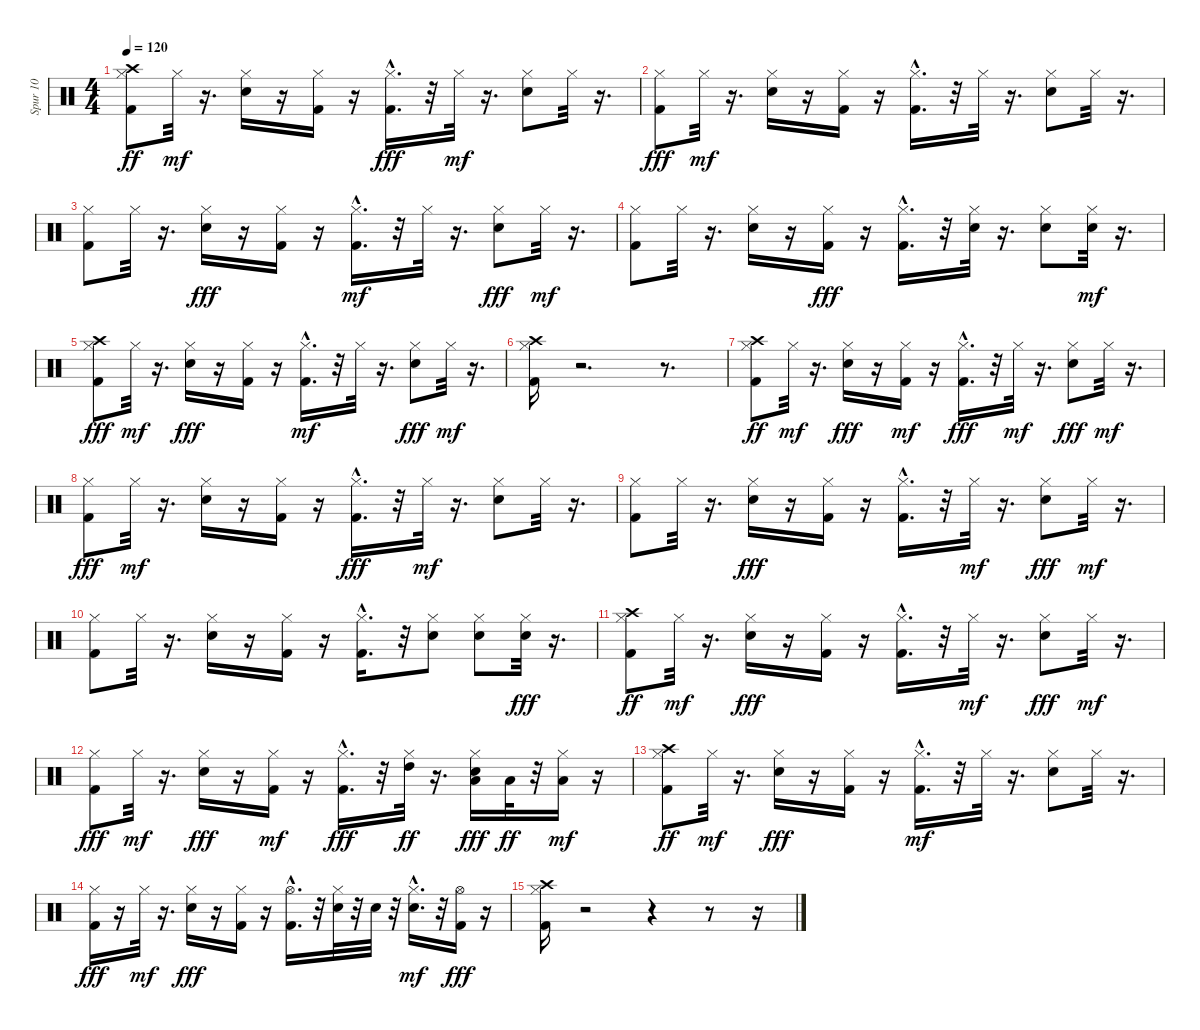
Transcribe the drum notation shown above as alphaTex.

\track ("Spur 10" "Spur 10") {instrument percussion}
\staff {score}
\articulation defaults
\ts (4 4)
\tempo 120
\clef neutral
\ks c
("Hi-Hat (closed)" "Kick (hit) 2" "Crash high (hit)").8{dy ff} "Hi-Hat (closed)".32{dy mf} r.16{d} ("Electric Snare (hit)" "Hi-Hat (closed)").16 r.16 ("Kick (hit) 2" "Hi-Hat (closed)").16 r.16 ("Hi-Hat (closed)" "Kick (hit) 2"{hac}).16{d dy fff} r.32 "Hi-Hat (closed)".32{dy mf} r.16{d} ("Electric Snare (hit)" "Hi-Hat (closed)").8 "Hi-Hat (closed)".32 r.16{d} |
("Hi-Hat (closed)" "Kick (hit) 2").8{dy fff} "Hi-Hat (closed)".32{dy mf} r.16{d} ("Electric Snare (hit)" "Hi-Hat (closed)").16 r.16 ("Kick (hit) 2" "Hi-Hat (closed)").16 r.16 ("Kick (hit) 2"{hac} "Hi-Hat (closed)").16{d} r.32 "Hi-Hat (closed)".32 r.16{d} ("Electric Snare (hit)" "Hi-Hat (closed)").8 "Hi-Hat (closed)".32 r.16{d} |
("Kick (hit) 2" "Hi-Hat (closed)").8 "Hi-Hat (closed)".32 r.16{d} ("Hi-Hat (closed)" "Electric Snare (hit)").16{dy fff} r.16 ("Hi-Hat (closed)" "Kick (hit) 2").16 r.16 ("Kick (hit) 2"{hac} "Hi-Hat (closed)").16{d dy mf} r.32 "Hi-Hat (closed)".32 r.16{d} ("Hi-Hat (closed)" "Electric Snare (hit)").8{dy fff} "Hi-Hat (closed)".32{dy mf} r.16{d} |
("Kick (hit) 2" "Hi-Hat (closed)").8 "Hi-Hat (closed)".32 r.16{d} ("Electric Snare (hit)" "Hi-Hat (closed)").16 r.16 ("Hi-Hat (closed)" "Kick (hit) 2").16{dy fff} r.16 ("Hi-Hat (closed)" "Kick (hit) 2"{hac}).16{d} r.32 ("Hi-Hat (closed)" "Electric Snare (hit)").32 r.16{d} ("Hi-Hat (closed)" "Electric Snare (hit)").8 ("Electric Snare (hit)" "Hi-Hat (closed)").32{dy mf} r.16{d} |
("Crash high (hit)" "Hi-Hat (closed)" "Kick (hit) 2").8{dy fff} "Hi-Hat (closed)".32{dy mf} r.16{d} ("Hi-Hat (closed)" "Electric Snare (hit)").16{dy fff} r.16 ("Hi-Hat (closed)" "Kick (hit) 2").16 r.16 ("Kick (hit) 2"{hac} "Hi-Hat (closed)").16{d dy mf} r.32 "Hi-Hat (closed)".32 r.16{d} ("Hi-Hat (closed)" "Electric Snare (hit)").8{dy fff} "Hi-Hat (closed)".32{dy mf} r.16{d} |
("Kick (hit) 2" "Crash high (hit)" "Hi-Hat (closed)").16 r.2{d} r.8{d} |
("Kick (hit) 2" "Hi-Hat (closed)" "Crash high (hit)").8{dy ff} "Hi-Hat (closed)".32{dy mf} r.16{d} ("Hi-Hat (closed)" "Electric Snare (hit)").16{dy fff} r.16 ("Kick (hit) 2" "Hi-Hat (closed)").16{dy mf} r.16 ("Hi-Hat (closed)" "Kick (hit) 2"{hac}).16{d dy fff} r.32 "Hi-Hat (closed)".32{dy mf} r.16{d} ("Hi-Hat (closed)" "Electric Snare (hit)").8{dy fff} "Hi-Hat (closed)".32{dy mf} r.16{d} |
("Hi-Hat (closed)" "Kick (hit) 2").8{dy fff} "Hi-Hat (closed)".32{dy mf} r.16{d} ("Electric Snare (hit)" "Hi-Hat (closed)").16 r.16 ("Kick (hit) 2" "Hi-Hat (closed)").16 r.16 ("Hi-Hat (closed)" "Kick (hit) 2"{hac}).16{d dy fff} r.32 "Hi-Hat (closed)".32{dy mf} r.16{d} ("Electric Snare (hit)" "Hi-Hat (closed)").8 "Hi-Hat (closed)".32 r.16{d} |
("Kick (hit) 2" "Hi-Hat (closed)").8 "Hi-Hat (closed)".32 r.16{d} ("Hi-Hat (closed)" "Electric Snare (hit)").16{dy fff} r.16 ("Hi-Hat (closed)" "Kick (hit) 2").16 r.16 ("Hi-Hat (closed)" "Kick (hit) 2"{hac}).16{d} r.32 "Hi-Hat (closed)".32{dy mf} r.16{d} ("Hi-Hat (closed)" "Electric Snare (hit)").8{dy fff} "Hi-Hat (closed)".32{dy mf} r.16{d} |
("Kick (hit) 2" "Hi-Hat (closed)").8 "Hi-Hat (closed)".32 r.16{d} ("Electric Snare (hit)" "Hi-Hat (closed)").16 r.16 ("Kick (hit) 2" "Hi-Hat (closed)").16 r.16 ("Kick (hit) 2"{hac} "Hi-Hat (closed)").16{d} r.32 ("Electric Snare (hit)" "Hi-Hat (closed)").8 ("Electric Snare (hit)" "Hi-Hat (closed)").8 ("Hi-Hat (closed)" "Electric Snare (hit)").32{dy fff} r.16{d} |
("Kick (hit) 2" "Hi-Hat (closed)" "Crash high (hit)").8{dy ff} "Hi-Hat (closed)".32{dy mf} r.16{d} ("Hi-Hat (closed)" "Electric Snare (hit)").16{dy fff} r.16 ("Hi-Hat (closed)" "Kick (hit) 2").16 r.16 ("Hi-Hat (closed)" "Kick (hit) 2"{hac}).16{d} r.32 "Hi-Hat (closed)".32{dy mf} r.16{d} ("Hi-Hat (closed)" "Electric Snare (hit)").8{dy fff} "Hi-Hat (closed)".32{dy mf} r.16{d} |
("Hi-Hat (closed)" "Kick (hit) 2").8{dy fff} "Hi-Hat (closed)".32{dy mf} r.16{d} ("Hi-Hat (closed)" "Electric Snare (hit)").16{dy fff} r.16 ("Kick (hit) 2" "Hi-Hat (closed)").16{dy mf} r.16 ("Hi-Hat (closed)" "Kick (hit) 2"{hac}).16{d dy fff} r.32 ("Hi-Hat (closed)" "High Tom (hit)").32{dy ff} r.16{d} ("Low Tom (hit)" "Hi-Hat (closed)" "Electric Snare (hit)").16{dy fff} "Low Tom (hit)".32{dy ff} r.32 ("Low Floor Tom (hit)" "Hi-Hat (closed)").16{dy mf} r.16 |
("Hi-Hat (closed)" "Kick (hit) 2" "Crash high (hit)").8{dy ff} "Hi-Hat (closed)".32{dy mf} r.16{d} ("Hi-Hat (closed)" "Electric Snare (hit)").16{dy fff} r.16 ("Hi-Hat (closed)" "Kick (hit) 2").16 r.16 ("Kick (hit) 2"{hac} "Hi-Hat (closed)").16{d dy mf} r.32 "Hi-Hat (closed)".32 r.16{d} ("Electric Snare (hit)" "Hi-Hat (closed)").8 "Hi-Hat (closed)".32 r.16{d} |
("Hi-Hat (closed)" "Kick (hit) 2").16{dy fff} r.16 "Hi-Hat (closed)".32{dy mf} r.16{d} ("Hi-Hat (closed)" "Electric Snare (hit)").16{dy fff} r.16 ("Hi-Hat (closed)" "Kick (hit) 2").16 r.16 ("Hi-Hat (open)" "Kick (hit) 2"{hac}).16{d} r.32 ("Hi-Hat (closed)" "Electric Snare (hit)").32 r.32 "Electric Snare (hit)".32 r.32 ("Electric Snare (hit)"{hac} "Hi-Hat (closed)").16{d dy mf} r.32 ("Hi-Hat (open)" "Kick (hit) 2").16{dy fff} r.16 |
("Crash high (hit)" "Hi-Hat (closed)" "Kick (hit) 2").16 r.2 r.4 r.8 r.16
